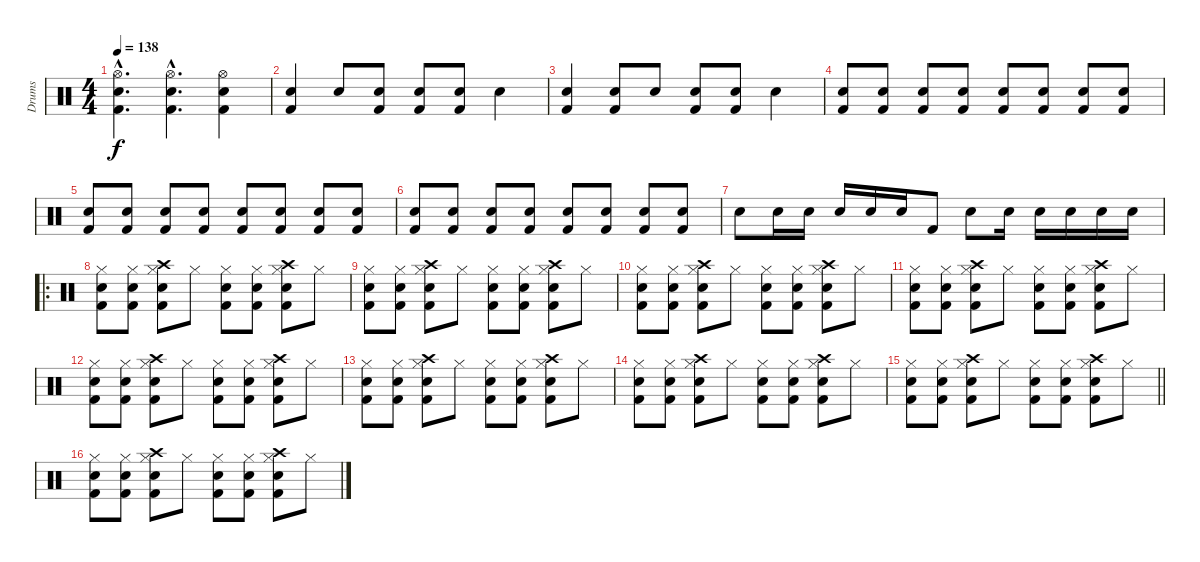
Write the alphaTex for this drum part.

\track ("Drums" "Drums") {instrument percussion}
\staff {score}
\articulation defaults
\ts (4 4)
\tempo 138
\clef neutral
\ks c
("Hi-Hat (open)"{hac} "Snare (hit) 2"{hac} "Kick (hit) 2"{hac}).4{d dy f} ("Hi-Hat (open)"{hac} "Snare (hit) 2"{hac} "Kick (hit) 2"{hac}).4{d} ("Hi-Hat (open)" "Snare (hit) 2" "Kick (hit) 2").4 |
("Snare (hit) 2" "Kick (hit) 2").4 "Electric Snare (hit)".8 ("Snare (hit) 2" "Kick (hit) 2").8 ("Snare (hit) 2" "Kick (hit) 2").8 ("Snare (hit) 2" "Kick (hit) 2").8 "Electric Snare (hit)".4 |
("Snare (hit) 2" "Kick (hit) 2").4 ("Snare (hit) 2" "Kick (hit) 2").8 "Electric Snare (hit)".8 ("Snare (hit) 2" "Kick (hit) 2").8 ("Snare (hit) 2" "Kick (hit) 2").8 "Electric Snare (hit)".4 |
("Snare (hit) 2" "Kick (hit) 2").8 ("Snare (hit) 2" "Kick (hit) 2").8 ("Snare (hit) 2" "Kick (hit) 2").8 ("Snare (hit) 2" "Kick (hit) 2").8 ("Snare (hit) 2" "Kick (hit) 2").8 ("Snare (hit) 2" "Kick (hit) 2").8 ("Snare (hit) 2" "Kick (hit) 2").8 ("Snare (hit) 2" "Kick (hit) 2").8 |
("Snare (hit) 2" "Kick (hit) 2").8 ("Snare (hit) 2" "Kick (hit) 2").8 ("Snare (hit) 2" "Kick (hit) 2").8 ("Snare (hit) 2" "Kick (hit) 2").8 ("Snare (hit) 2" "Kick (hit) 2").8 ("Snare (hit) 2" "Kick (hit) 2").8 ("Snare (hit) 2" "Kick (hit) 2").8 ("Snare (hit) 2" "Kick (hit) 2").8 |
("Snare (hit) 2" "Kick (hit) 2").8 ("Snare (hit) 2" "Kick (hit) 2").8 ("Snare (hit) 2" "Kick (hit) 2").8 ("Snare (hit) 2" "Kick (hit) 2").8 ("Snare (hit) 2" "Kick (hit) 2").8 ("Snare (hit) 2" "Kick (hit) 2").8 ("Snare (hit) 2" "Kick (hit) 2").8 ("Snare (hit) 2" "Kick (hit) 2").8 |
"Electric Snare (hit)".8 "Snare (hit) 2".16 "Snare (hit) 2".16 "Snare (hit) 2".16 "Snare (hit) 2".16 "Snare (hit) 2".16 "Kick (hit) 2".8 "Snare (hit) 2".8 "Electric Snare (hit)".16 "Electric Snare (hit)".16 "Electric Snare (hit)".16 "Electric Snare (hit)".16 "Electric Snare (hit)".16 |
\ro
("Hi-Hat (closed)" "Snare (hit) 2" "Kick (hit) 2").8 ("Hi-Hat (closed)" "Snare (hit) 2" "Kick (hit) 2").8 ("Hi-Hat (closed)" "Crash high (hit)" "Snare (hit) 2" "Kick (hit) 2").8 "Hi-Hat (closed)".8 ("Hi-Hat (closed)" "Snare (hit) 2" "Kick (hit) 2").8 ("Hi-Hat (closed)" "Snare (hit) 2" "Kick (hit) 2").8 ("Hi-Hat (closed)" "Crash high (hit)" "Snare (hit) 2" "Kick (hit) 2").8 "Hi-Hat (closed)".8 |
("Hi-Hat (closed)" "Snare (hit) 2" "Kick (hit) 2").8 ("Hi-Hat (closed)" "Snare (hit) 2" "Kick (hit) 2").8 ("Hi-Hat (closed)" "Crash high (hit)" "Snare (hit) 2" "Kick (hit) 2").8 "Hi-Hat (closed)".8 ("Hi-Hat (closed)" "Snare (hit) 2" "Kick (hit) 2").8 ("Hi-Hat (closed)" "Snare (hit) 2" "Kick (hit) 2").8 ("Hi-Hat (closed)" "Crash high (hit)" "Snare (hit) 2" "Kick (hit) 2").8 "Hi-Hat (closed)".8 |
("Hi-Hat (closed)" "Snare (hit) 2" "Kick (hit) 2").8 ("Hi-Hat (closed)" "Snare (hit) 2" "Kick (hit) 2").8 ("Hi-Hat (closed)" "Crash high (hit)" "Snare (hit) 2" "Kick (hit) 2").8 "Hi-Hat (closed)".8 ("Hi-Hat (closed)" "Snare (hit) 2" "Kick (hit) 2").8 ("Hi-Hat (closed)" "Snare (hit) 2" "Kick (hit) 2").8 ("Hi-Hat (closed)" "Crash high (hit)" "Snare (hit) 2" "Kick (hit) 2").8 "Hi-Hat (closed)".8 |
("Hi-Hat (closed)" "Snare (hit) 2" "Kick (hit) 2").8 ("Hi-Hat (closed)" "Snare (hit) 2" "Kick (hit) 2").8 ("Hi-Hat (closed)" "Crash high (hit)" "Snare (hit) 2" "Kick (hit) 2").8 "Hi-Hat (closed)".8 ("Hi-Hat (closed)" "Snare (hit) 2" "Kick (hit) 2").8 ("Hi-Hat (closed)" "Snare (hit) 2" "Kick (hit) 2").8 ("Hi-Hat (closed)" "Crash high (hit)" "Snare (hit) 2" "Kick (hit) 2").8 "Hi-Hat (closed)".8 |
("Hi-Hat (closed)" "Snare (hit) 2" "Kick (hit) 2").8 ("Hi-Hat (closed)" "Snare (hit) 2" "Kick (hit) 2").8 ("Hi-Hat (closed)" "Crash high (hit)" "Snare (hit) 2" "Kick (hit) 2").8 "Hi-Hat (closed)".8 ("Hi-Hat (closed)" "Snare (hit) 2" "Kick (hit) 2").8 ("Hi-Hat (closed)" "Snare (hit) 2" "Kick (hit) 2").8 ("Hi-Hat (closed)" "Crash high (hit)" "Snare (hit) 2" "Kick (hit) 2").8 "Hi-Hat (closed)".8 |
("Hi-Hat (closed)" "Snare (hit) 2" "Kick (hit) 2").8 ("Hi-Hat (closed)" "Snare (hit) 2" "Kick (hit) 2").8 ("Hi-Hat (closed)" "Crash high (hit)" "Snare (hit) 2" "Kick (hit) 2").8 "Hi-Hat (closed)".8 ("Hi-Hat (closed)" "Snare (hit) 2" "Kick (hit) 2").8 ("Hi-Hat (closed)" "Snare (hit) 2" "Kick (hit) 2").8 ("Hi-Hat (closed)" "Crash high (hit)" "Snare (hit) 2" "Kick (hit) 2").8 "Hi-Hat (closed)".8 |
("Hi-Hat (closed)" "Snare (hit) 2" "Kick (hit) 2").8 ("Hi-Hat (closed)" "Snare (hit) 2" "Kick (hit) 2").8 ("Hi-Hat (closed)" "Crash high (hit)" "Snare (hit) 2" "Kick (hit) 2").8 "Hi-Hat (closed)".8 ("Hi-Hat (closed)" "Snare (hit) 2" "Kick (hit) 2").8 ("Hi-Hat (closed)" "Snare (hit) 2" "Kick (hit) 2").8 ("Hi-Hat (closed)" "Crash high (hit)" "Snare (hit) 2" "Kick (hit) 2").8 "Hi-Hat (closed)".8 |
\barLineRight lightlight
("Hi-Hat (closed)" "Snare (hit) 2" "Kick (hit) 2").8 ("Hi-Hat (closed)" "Snare (hit) 2" "Kick (hit) 2").8 ("Hi-Hat (closed)" "Crash high (hit)" "Snare (hit) 2" "Kick (hit) 2").8 "Hi-Hat (closed)".8 ("Hi-Hat (closed)" "Snare (hit) 2" "Kick (hit) 2").8 ("Hi-Hat (closed)" "Snare (hit) 2" "Kick (hit) 2").8 ("Hi-Hat (closed)" "Crash high (hit)" "Snare (hit) 2" "Kick (hit) 2").8 "Hi-Hat (closed)".8 |
("Hi-Hat (closed)" "Snare (hit) 2" "Kick (hit) 2").8 ("Hi-Hat (closed)" "Snare (hit) 2" "Kick (hit) 2").8 ("Hi-Hat (closed)" "Crash high (hit)" "Snare (hit) 2" "Kick (hit) 2").8 "Hi-Hat (closed)".8 ("Hi-Hat (closed)" "Snare (hit) 2" "Kick (hit) 2").8 ("Hi-Hat (closed)" "Snare (hit) 2" "Kick (hit) 2").8 ("Hi-Hat (closed)" "Crash high (hit)" "Snare (hit) 2" "Kick (hit) 2").8 "Hi-Hat (closed)".8
